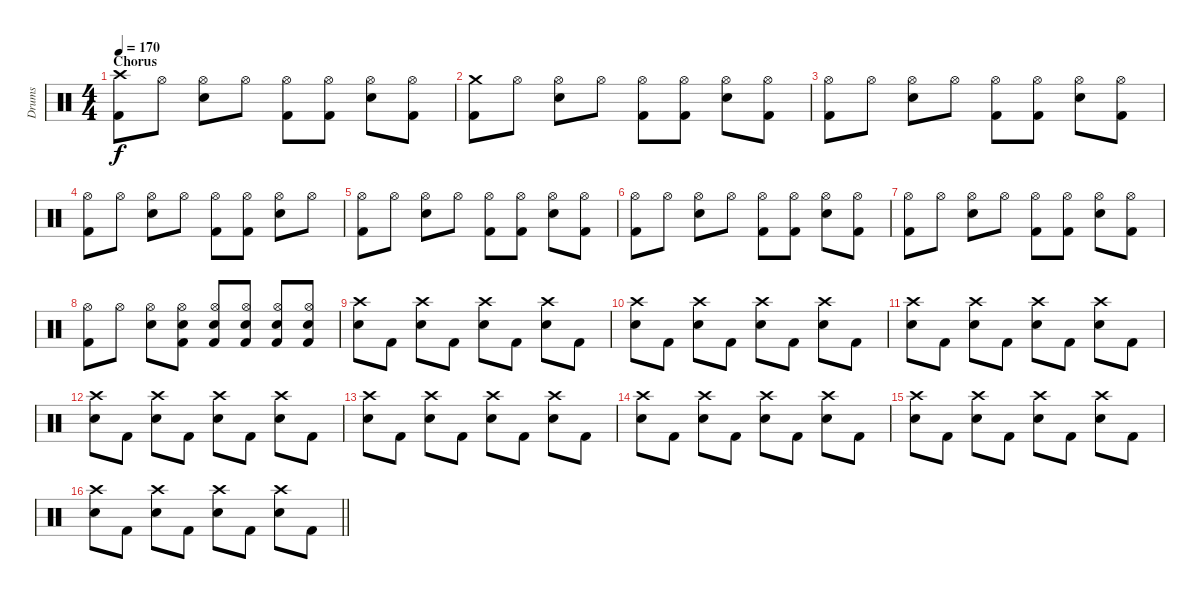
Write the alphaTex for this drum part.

\track ("Drums" "Drums") {instrument percussion}
\staff {score}
\articulation defaults
\ts (4 4)
\section ("" "Chorus")
\tempo 170
\clef neutral
\ks c
("Crash high (hit)" "Kick (hit) 2").8{dy f} "Hi-Hat (open)".8 ("Hi-Hat (open)" "Electric Snare (hit)").8 "Hi-Hat (open)".8 ("Hi-Hat (open)" "Kick (hit) 2").8 ("Hi-Hat (open)" "Kick (hit) 2").8 ("Hi-Hat (open)" "Electric Snare (hit)").8 ("Hi-Hat (open)" "Kick (hit) 2").8 |
("Crash medium (hit)" "Kick (hit) 2").8 "Hi-Hat (open)".8 ("Hi-Hat (open)" "Electric Snare (hit)").8 "Hi-Hat (open)".8 ("Hi-Hat (open)" "Kick (hit) 2").8 ("Hi-Hat (open)" "Kick (hit) 2").8 ("Hi-Hat (open)" "Electric Snare (hit)").8 ("Hi-Hat (open)" "Kick (hit) 2").8 |
("Hi-Hat (open)" "Kick (hit) 2").8 "Hi-Hat (open)".8 ("Hi-Hat (open)" "Electric Snare (hit)").8 "Hi-Hat (open)".8 ("Hi-Hat (open)" "Kick (hit) 2").8 ("Hi-Hat (open)" "Kick (hit) 2").8 ("Hi-Hat (open)" "Electric Snare (hit)").8 ("Hi-Hat (open)" "Kick (hit) 2").8 |
("Hi-Hat (open)" "Kick (hit) 2").8 "Hi-Hat (open)".8 ("Hi-Hat (open)" "Electric Snare (hit)").8 "Hi-Hat (open)".8 ("Hi-Hat (open)" "Kick (hit) 2").8 ("Hi-Hat (open)" "Kick (hit) 2").8 ("Hi-Hat (open)" "Electric Snare (hit)").8 "Hi-Hat (open)".8 |
("Hi-Hat (open)" "Kick (hit) 2").8 "Hi-Hat (open)".8 ("Hi-Hat (open)" "Electric Snare (hit)").8 "Hi-Hat (open)".8 ("Hi-Hat (open)" "Kick (hit) 2").8 ("Hi-Hat (open)" "Kick (hit) 2").8 ("Hi-Hat (open)" "Electric Snare (hit)").8 ("Hi-Hat (open)" "Kick (hit) 2").8 |
("Hi-Hat (open)" "Kick (hit) 2").8 "Hi-Hat (open)".8 ("Hi-Hat (open)" "Electric Snare (hit)").8 "Hi-Hat (open)".8 ("Hi-Hat (open)" "Kick (hit) 2").8 ("Hi-Hat (open)" "Kick (hit) 2").8 ("Hi-Hat (open)" "Electric Snare (hit)").8 ("Hi-Hat (open)" "Kick (hit) 2").8 |
("Hi-Hat (open)" "Kick (hit) 2").8 "Hi-Hat (open)".8 ("Hi-Hat (open)" "Electric Snare (hit)").8 "Hi-Hat (open)".8 ("Hi-Hat (open)" "Kick (hit) 2").8 ("Hi-Hat (open)" "Kick (hit) 2").8 ("Hi-Hat (open)" "Electric Snare (hit)").8 ("Hi-Hat (open)" "Kick (hit) 2").8 |
("Hi-Hat (open)" "Kick (hit) 2").8 "Hi-Hat (open)".8 ("Hi-Hat (open)" "Electric Snare (hit)").8 ("Hi-Hat (open)" "Electric Snare (hit)" "Kick (hit) 2").8 ("Hi-Hat (open)" "Electric Snare (hit)" "Kick (hit) 2").8 ("Hi-Hat (open)" "Electric Snare (hit)" "Kick (hit) 2").8 ("Hi-Hat (open)" "Electric Snare (hit)" "Kick (hit) 2").8 ("Hi-Hat (open)" "Electric Snare (hit)" "Kick (hit) 2").8 |
("Crash high (hit)" "Electric Snare (hit)").8 "Kick (hit) 2".8 ("Crash high (hit)" "Electric Snare (hit)").8 "Kick (hit) 2".8 ("Crash high (hit)" "Electric Snare (hit)").8 "Kick (hit) 2".8 ("Crash high (hit)" "Electric Snare (hit)").8 "Kick (hit) 2".8 |
("Crash high (hit)" "Electric Snare (hit)").8 "Kick (hit) 2".8 ("Crash high (hit)" "Electric Snare (hit)").8 "Kick (hit) 2".8 ("Crash high (hit)" "Electric Snare (hit)").8 "Kick (hit) 2".8 ("Crash high (hit)" "Electric Snare (hit)").8 "Kick (hit) 2".8 |
("Crash high (hit)" "Electric Snare (hit)").8 "Kick (hit) 2".8 ("Crash high (hit)" "Electric Snare (hit)").8 "Kick (hit) 2".8 ("Crash high (hit)" "Electric Snare (hit)").8 "Kick (hit) 2".8 ("Crash high (hit)" "Electric Snare (hit)").8 "Kick (hit) 2".8 |
("Crash high (hit)" "Electric Snare (hit)").8 "Kick (hit) 2".8 ("Crash high (hit)" "Electric Snare (hit)").8 "Kick (hit) 2".8 ("Crash high (hit)" "Electric Snare (hit)").8 "Kick (hit) 2".8 ("Crash high (hit)" "Electric Snare (hit)").8 "Kick (hit) 2".8 |
("Crash high (hit)" "Electric Snare (hit)").8 "Kick (hit) 2".8 ("Crash high (hit)" "Electric Snare (hit)").8 "Kick (hit) 2".8 ("Crash high (hit)" "Electric Snare (hit)").8 "Kick (hit) 2".8 ("Crash high (hit)" "Electric Snare (hit)").8 "Kick (hit) 2".8 |
("Crash high (hit)" "Electric Snare (hit)").8 "Kick (hit) 2".8 ("Crash high (hit)" "Electric Snare (hit)").8 "Kick (hit) 2".8 ("Crash high (hit)" "Electric Snare (hit)").8 "Kick (hit) 2".8 ("Crash high (hit)" "Electric Snare (hit)").8 "Kick (hit) 2".8 |
("Crash high (hit)" "Electric Snare (hit)").8 "Kick (hit) 2".8 ("Crash high (hit)" "Electric Snare (hit)").8 "Kick (hit) 2".8 ("Crash high (hit)" "Electric Snare (hit)").8 "Kick (hit) 2".8 ("Crash high (hit)" "Electric Snare (hit)").8 "Kick (hit) 2".8 |
\barLineRight lightlight
("Crash high (hit)" "Electric Snare (hit)").8 "Kick (hit) 2".8 ("Crash high (hit)" "Electric Snare (hit)").8 "Kick (hit) 2".8 ("Crash high (hit)" "Electric Snare (hit)").8 "Kick (hit) 2".8 ("Crash high (hit)" "Electric Snare (hit)").8 "Kick (hit) 2".8
